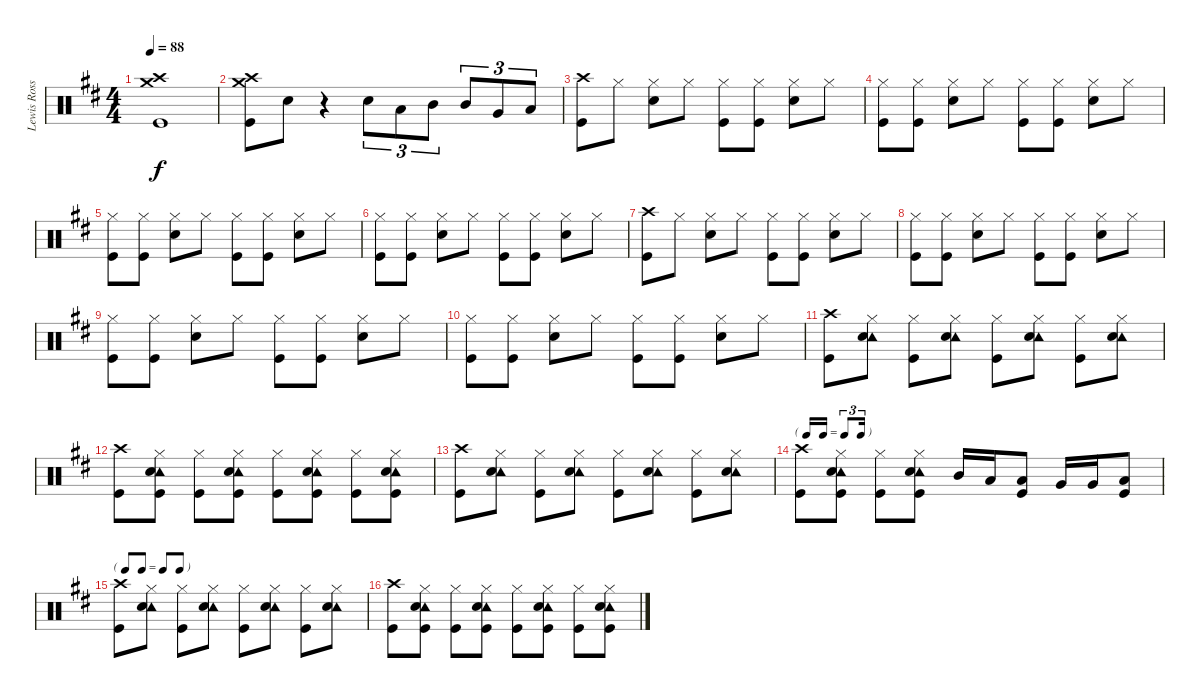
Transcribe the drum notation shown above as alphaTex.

\track ("Lewis Ross Drums" "Lewis Ross") {instrument percussion}
\staff {score}
\articulation defaults
\ts (4 4)
\tempo 88
\clef neutral
\ks d
("Crash high (hit)" "Crash medium (hit)" "Kick (hit)").1{dy f} |
("Crash high (hit)" "Crash medium (hit)" "Kick (hit)").8 "Snare (hit) 2".8 r.4 "Snare (hit) 2".8{tu (3 2)} "Low Tom (hit)".8{tu (3 2)} "Mid Tom (hit)".8{tu (3 2)} "Mid Tom (hit)".8{tu (3 2)} "Very Low Tom (hit)".8{tu (3 2)} "Low Floor Tom (hit)".8{tu (3 2)} |
("Crash high (hit)" "Kick (hit)").8 "Hi-Hat (closed)".8 ("Hi-Hat (closed)" "Snare (hit) 2").8 "Hi-Hat (closed)".8 ("Hi-Hat (closed)" "Kick (hit)").8 ("Hi-Hat (closed)" "Kick (hit)").8 ("Hi-Hat (closed)" "Snare (hit) 2").8 "Hi-Hat (closed)".8 |
("Hi-Hat (closed)" "Kick (hit)").8 ("Hi-Hat (closed)" "Kick (hit)").8 ("Hi-Hat (closed)" "Snare (hit) 2").8 "Hi-Hat (closed)".8 ("Hi-Hat (closed)" "Kick (hit)").8 ("Hi-Hat (closed)" "Kick (hit)").8 ("Hi-Hat (closed)" "Snare (hit) 2").8 "Hi-Hat (closed)".8 |
("Hi-Hat (closed)" "Kick (hit)").8 ("Hi-Hat (closed)" "Kick (hit)").8 ("Hi-Hat (closed)" "Snare (hit) 2").8 "Hi-Hat (closed)".8 ("Hi-Hat (closed)" "Kick (hit)").8 ("Hi-Hat (closed)" "Kick (hit)").8 ("Hi-Hat (closed)" "Snare (hit) 2").8 "Hi-Hat (closed)".8 |
("Hi-Hat (closed)" "Kick (hit)").8 ("Hi-Hat (closed)" "Kick (hit)").8 ("Hi-Hat (closed)" "Snare (hit) 2").8 "Hi-Hat (closed)".8 ("Hi-Hat (closed)" "Kick (hit)").8 ("Hi-Hat (closed)" "Kick (hit)").8 ("Hi-Hat (closed)" "Snare (hit) 2").8 "Hi-Hat (closed)".8 |
("Crash high (hit)" "Kick (hit)").8 "Hi-Hat (closed)".8 ("Hi-Hat (closed)" "Snare (hit) 2").8 "Hi-Hat (closed)".8 ("Hi-Hat (closed)" "Kick (hit)").8 ("Hi-Hat (closed)" "Kick (hit)").8 ("Hi-Hat (closed)" "Snare (hit) 2").8 "Hi-Hat (closed)".8 |
("Hi-Hat (closed)" "Kick (hit)").8 ("Hi-Hat (closed)" "Kick (hit)").8 ("Hi-Hat (closed)" "Snare (hit) 2").8 "Hi-Hat (closed)".8 ("Hi-Hat (closed)" "Kick (hit)").8 ("Hi-Hat (closed)" "Kick (hit)").8 ("Hi-Hat (closed)" "Snare (hit) 2").8 "Hi-Hat (closed)".8 |
("Hi-Hat (closed)" "Kick (hit)").8 ("Hi-Hat (closed)" "Kick (hit)").8 ("Hi-Hat (closed)" "Snare (hit) 2").8 "Hi-Hat (closed)".8 ("Hi-Hat (closed)" "Kick (hit)").8 ("Hi-Hat (closed)" "Kick (hit)").8 ("Hi-Hat (closed)" "Snare (hit) 2").8 "Hi-Hat (closed)".8 |
("Hi-Hat (closed)" "Kick (hit)").8 ("Hi-Hat (closed)" "Kick (hit)").8 ("Hi-Hat (closed)" "Snare (hit) 2").8 "Hi-Hat (closed)".8 ("Hi-Hat (closed)" "Kick (hit)").8 ("Hi-Hat (closed)" "Kick (hit)").8 ("Hi-Hat (closed)" "Snare (hit) 2").8 "Hi-Hat (closed)".8 |
("Crash high (hit)" "Kick (hit)").8 ("Hi-Hat (closed)" "Tambourine (hit)" "Snare (hit) 2").8 ("Hi-Hat (closed)" "Kick (hit)").8 ("Hi-Hat (closed)" "Tambourine (hit)" "Snare (hit) 2").8 ("Hi-Hat (closed)" "Kick (hit)").8 ("Hi-Hat (closed)" "Tambourine (hit)" "Snare (hit) 2").8 ("Hi-Hat (closed)" "Kick (hit)").8 ("Hi-Hat (closed)" "Tambourine (hit)" "Snare (hit) 2").8 |
("Crash high (hit)" "Kick (hit)").8 ("Hi-Hat (closed)" "Tambourine (hit)" "Snare (hit) 2" "Kick (hit)").8 ("Hi-Hat (closed)" "Kick (hit)").8 ("Hi-Hat (closed)" "Tambourine (hit)" "Snare (hit) 2" "Kick (hit)").8 ("Hi-Hat (closed)" "Kick (hit)").8 ("Hi-Hat (closed)" "Tambourine (hit)" "Snare (hit) 2" "Kick (hit)").8 ("Hi-Hat (closed)" "Kick (hit)").8 ("Hi-Hat (closed)" "Tambourine (hit)" "Snare (hit) 2" "Kick (hit)").8 |
("Crash high (hit)" "Kick (hit)").8 ("Hi-Hat (closed)" "Tambourine (hit)" "Snare (hit) 2").8 ("Hi-Hat (closed)" "Kick (hit)").8 ("Hi-Hat (closed)" "Tambourine (hit)" "Snare (hit) 2").8 ("Hi-Hat (closed)" "Kick (hit)").8 ("Hi-Hat (closed)" "Tambourine (hit)" "Snare (hit) 2").8 ("Hi-Hat (closed)" "Kick (hit)").8 ("Hi-Hat (closed)" "Tambourine (hit)" "Snare (hit) 2").8 |
\tf triplet16th
("Crash high (hit)" "Kick (hit)").8 ("Hi-Hat (closed)" "Tambourine (hit)" "Snare (hit) 2" "Kick (hit)").8 ("Hi-Hat (closed)" "Kick (hit)").8 ("Hi-Hat (closed)" "Tambourine (hit)" "Snare (hit) 2" "Kick (hit)").8 "Mid Tom (hit)".16 "Low Tom (hit)".16 ("Low Tom (hit)" "Kick (hit)").8 "Very Low Tom (hit)".16 "Very Low Tom (hit)".16 ("Low Floor Tom (hit)" "Kick (hit)").8 |
\tf none
("Crash high (hit)" "Kick (hit)").8 ("Hi-Hat (closed)" "Tambourine (hit)" "Snare (hit) 2").8 ("Hi-Hat (closed)" "Kick (hit)").8 ("Hi-Hat (closed)" "Tambourine (hit)" "Snare (hit) 2").8 ("Hi-Hat (closed)" "Kick (hit)").8 ("Hi-Hat (closed)" "Tambourine (hit)" "Snare (hit) 2").8 ("Hi-Hat (closed)" "Kick (hit)").8 ("Hi-Hat (closed)" "Tambourine (hit)" "Snare (hit) 2").8 |
("Crash high (hit)" "Kick (hit)").8 ("Hi-Hat (closed)" "Tambourine (hit)" "Snare (hit) 2" "Kick (hit)").8 ("Hi-Hat (closed)" "Kick (hit)").8 ("Hi-Hat (closed)" "Tambourine (hit)" "Snare (hit) 2" "Kick (hit)").8 ("Hi-Hat (closed)" "Kick (hit)").8 ("Hi-Hat (closed)" "Tambourine (hit)" "Snare (hit) 2" "Kick (hit)").8 ("Hi-Hat (closed)" "Kick (hit)").8 ("Hi-Hat (closed)" "Tambourine (hit)" "Snare (hit) 2" "Kick (hit)").8
